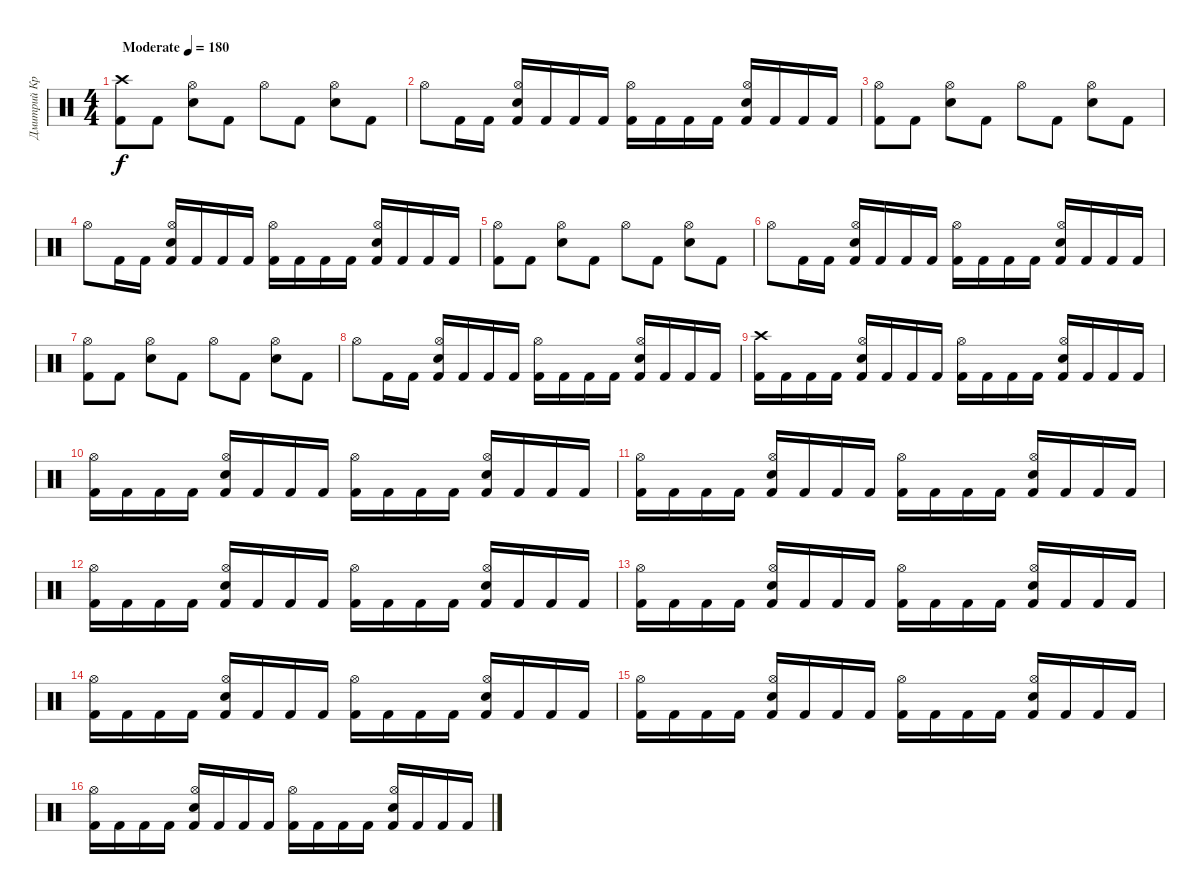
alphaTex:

\track ("Дмитрий Кривенков" "Дмитрий Кр") {instrument percussion}
\staff {score}
\articulation defaults
\ts (4 4)
\tempo (180 "Moderate")
\clef neutral
\ks c
("Crash high (hit)" "Kick (hit) 2").8{dy f} "Kick (hit) 2".8 ("Hi-Hat (open)" "Electric Snare (hit)").8 "Kick (hit) 2".8 "Hi-Hat (open)".8 "Kick (hit) 2".8 ("Hi-Hat (open)" "Electric Snare (hit)").8 "Kick (hit) 2".8 |
"Hi-Hat (open)".8 "Kick (hit) 2".16 "Kick (hit) 2".16 ("Hi-Hat (open)" "Electric Snare (hit)" "Kick (hit) 2").16 "Kick (hit) 2".16 "Kick (hit) 2".16 "Kick (hit) 2".16 ("Hi-Hat (open)" "Kick (hit) 2").16 "Kick (hit) 2".16 "Kick (hit) 2".16 "Kick (hit) 2".16 ("Hi-Hat (open)" "Electric Snare (hit)" "Kick (hit) 2").16 "Kick (hit) 2".16 "Kick (hit) 2".16 "Kick (hit) 2".16 |
("Hi-Hat (open)" "Kick (hit) 2").8 "Kick (hit) 2".8 ("Hi-Hat (open)" "Electric Snare (hit)").8 "Kick (hit) 2".8 "Hi-Hat (open)".8 "Kick (hit) 2".8 ("Hi-Hat (open)" "Electric Snare (hit)").8 "Kick (hit) 2".8 |
"Hi-Hat (open)".8 "Kick (hit) 2".16 "Kick (hit) 2".16 ("Hi-Hat (open)" "Electric Snare (hit)" "Kick (hit) 2").16 "Kick (hit) 2".16 "Kick (hit) 2".16 "Kick (hit) 2".16 ("Hi-Hat (open)" "Kick (hit) 2").16 "Kick (hit) 2".16 "Kick (hit) 2".16 "Kick (hit) 2".16 ("Hi-Hat (open)" "Electric Snare (hit)" "Kick (hit) 2").16 "Kick (hit) 2".16 "Kick (hit) 2".16 "Kick (hit) 2".16 |
("Hi-Hat (open)" "Kick (hit) 2").8 "Kick (hit) 2".8 ("Hi-Hat (open)" "Electric Snare (hit)").8 "Kick (hit) 2".8 "Hi-Hat (open)".8 "Kick (hit) 2".8 ("Hi-Hat (open)" "Electric Snare (hit)").8 "Kick (hit) 2".8 |
"Hi-Hat (open)".8 "Kick (hit) 2".16 "Kick (hit) 2".16 ("Hi-Hat (open)" "Electric Snare (hit)" "Kick (hit) 2").16 "Kick (hit) 2".16 "Kick (hit) 2".16 "Kick (hit) 2".16 ("Hi-Hat (open)" "Kick (hit) 2").16 "Kick (hit) 2".16 "Kick (hit) 2".16 "Kick (hit) 2".16 ("Hi-Hat (open)" "Electric Snare (hit)" "Kick (hit) 2").16 "Kick (hit) 2".16 "Kick (hit) 2".16 "Kick (hit) 2".16 |
("Hi-Hat (open)" "Kick (hit) 2").8 "Kick (hit) 2".8 ("Hi-Hat (open)" "Electric Snare (hit)").8 "Kick (hit) 2".8 "Hi-Hat (open)".8 "Kick (hit) 2".8 ("Hi-Hat (open)" "Electric Snare (hit)").8 "Kick (hit) 2".8 |
"Hi-Hat (open)".8 "Kick (hit) 2".16 "Kick (hit) 2".16 ("Hi-Hat (open)" "Electric Snare (hit)" "Kick (hit) 2").16 "Kick (hit) 2".16 "Kick (hit) 2".16 "Kick (hit) 2".16 ("Hi-Hat (open)" "Kick (hit) 2").16 "Kick (hit) 2".16 "Kick (hit) 2".16 "Kick (hit) 2".16 ("Hi-Hat (open)" "Electric Snare (hit)" "Kick (hit) 2").16 "Kick (hit) 2".16 "Kick (hit) 2".16 "Kick (hit) 2".16 |
("Crash high (hit)" "Kick (hit) 2").16 "Kick (hit) 2".16 "Kick (hit) 2".16 "Kick (hit) 2".16 ("Hi-Hat (open)" "Electric Snare (hit)" "Kick (hit) 2").16 "Kick (hit) 2".16 "Kick (hit) 2".16 "Kick (hit) 2".16 ("Hi-Hat (open)" "Kick (hit) 2").16 "Kick (hit) 2".16 "Kick (hit) 2".16 "Kick (hit) 2".16 ("Hi-Hat (open)" "Electric Snare (hit)" "Kick (hit) 2").16 "Kick (hit) 2".16 "Kick (hit) 2".16 "Kick (hit) 2".16 |
("Hi-Hat (open)" "Kick (hit) 2").16 "Kick (hit) 2".16 "Kick (hit) 2".16 "Kick (hit) 2".16 ("Hi-Hat (open)" "Electric Snare (hit)" "Kick (hit) 2").16 "Kick (hit) 2".16 "Kick (hit) 2".16 "Kick (hit) 2".16 ("Hi-Hat (open)" "Kick (hit) 2").16 "Kick (hit) 2".16 "Kick (hit) 2".16 "Kick (hit) 2".16 ("Hi-Hat (open)" "Electric Snare (hit)" "Kick (hit) 2").16 "Kick (hit) 2".16 "Kick (hit) 2".16 "Kick (hit) 2".16 |
("Hi-Hat (open)" "Kick (hit) 2").16 "Kick (hit) 2".16 "Kick (hit) 2".16 "Kick (hit) 2".16 ("Hi-Hat (open)" "Electric Snare (hit)" "Kick (hit) 2").16 "Kick (hit) 2".16 "Kick (hit) 2".16 "Kick (hit) 2".16 ("Hi-Hat (open)" "Kick (hit) 2").16 "Kick (hit) 2".16 "Kick (hit) 2".16 "Kick (hit) 2".16 ("Hi-Hat (open)" "Electric Snare (hit)" "Kick (hit) 2").16 "Kick (hit) 2".16 "Kick (hit) 2".16 "Kick (hit) 2".16 |
("Hi-Hat (open)" "Kick (hit) 2").16 "Kick (hit) 2".16 "Kick (hit) 2".16 "Kick (hit) 2".16 ("Hi-Hat (open)" "Electric Snare (hit)" "Kick (hit) 2").16 "Kick (hit) 2".16 "Kick (hit) 2".16 "Kick (hit) 2".16 ("Hi-Hat (open)" "Kick (hit) 2").16 "Kick (hit) 2".16 "Kick (hit) 2".16 "Kick (hit) 2".16 ("Hi-Hat (open)" "Electric Snare (hit)" "Kick (hit) 2").16 "Kick (hit) 2".16 "Kick (hit) 2".16 "Kick (hit) 2".16 |
("Hi-Hat (open)" "Kick (hit) 2").16 "Kick (hit) 2".16 "Kick (hit) 2".16 "Kick (hit) 2".16 ("Hi-Hat (open)" "Electric Snare (hit)" "Kick (hit) 2").16 "Kick (hit) 2".16 "Kick (hit) 2".16 "Kick (hit) 2".16 ("Hi-Hat (open)" "Kick (hit) 2").16 "Kick (hit) 2".16 "Kick (hit) 2".16 "Kick (hit) 2".16 ("Hi-Hat (open)" "Electric Snare (hit)" "Kick (hit) 2").16 "Kick (hit) 2".16 "Kick (hit) 2".16 "Kick (hit) 2".16 |
("Hi-Hat (open)" "Kick (hit) 2").16 "Kick (hit) 2".16 "Kick (hit) 2".16 "Kick (hit) 2".16 ("Hi-Hat (open)" "Electric Snare (hit)" "Kick (hit) 2").16 "Kick (hit) 2".16 "Kick (hit) 2".16 "Kick (hit) 2".16 ("Hi-Hat (open)" "Kick (hit) 2").16 "Kick (hit) 2".16 "Kick (hit) 2".16 "Kick (hit) 2".16 ("Hi-Hat (open)" "Electric Snare (hit)" "Kick (hit) 2").16 "Kick (hit) 2".16 "Kick (hit) 2".16 "Kick (hit) 2".16 |
("Hi-Hat (open)" "Kick (hit) 2").16 "Kick (hit) 2".16 "Kick (hit) 2".16 "Kick (hit) 2".16 ("Hi-Hat (open)" "Electric Snare (hit)" "Kick (hit) 2").16 "Kick (hit) 2".16 "Kick (hit) 2".16 "Kick (hit) 2".16 ("Hi-Hat (open)" "Kick (hit) 2").16 "Kick (hit) 2".16 "Kick (hit) 2".16 "Kick (hit) 2".16 ("Hi-Hat (open)" "Electric Snare (hit)" "Kick (hit) 2").16 "Kick (hit) 2".16 "Kick (hit) 2".16 "Kick (hit) 2".16 |
("Hi-Hat (open)" "Kick (hit) 2").16 "Kick (hit) 2".16 "Kick (hit) 2".16 "Kick (hit) 2".16 ("Hi-Hat (open)" "Electric Snare (hit)" "Kick (hit) 2").16 "Kick (hit) 2".16 "Kick (hit) 2".16 "Kick (hit) 2".16 ("Hi-Hat (open)" "Kick (hit) 2").16 "Kick (hit) 2".16 "Kick (hit) 2".16 "Kick (hit) 2".16 ("Hi-Hat (open)" "Electric Snare (hit)" "Kick (hit) 2").16 "Kick (hit) 2".16 "Kick (hit) 2".16 "Kick (hit) 2".16
